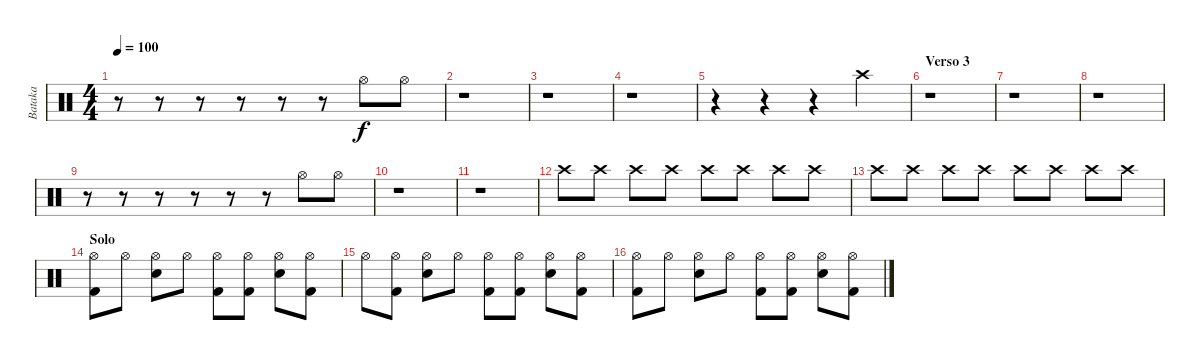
\track ("Bataka" "Bataka") {instrument percussion}
\staff {score}
\articulation defaults
\ts (4 4)
\tempo 100
\clef neutral
\ks c
r.8{dy f} r.8 r.8 r.8 r.8 r.8 "Hi-Hat (open)".8{volume 10} "Hi-Hat (open)".8 |
r.1 |
r.1 |
r.1 |
r.4{volume 8} r.4 r.4 "Crash high (hit)".4 |
\section ("" "Verso 3")
r.1 |
r.1 |
r.1 |
r.8 r.8 r.8 r.8 r.8 r.8 "Hi-Hat (open)".8{volume 10} "Hi-Hat (open)".8 |
r.1 |
r.1{volume 3} |
"Crash high (hit)".8{volume 14} "Crash high (hit)".8 "Crash high (hit)".8 "Crash high (hit)".8 "Crash high (hit)".8 "Crash high (hit)".8 "Crash high (hit)".8 "Crash high (hit)".8 |
"Crash high (hit)".8 "Crash high (hit)".8 "Crash high (hit)".8 "Crash high (hit)".8 "Crash high (hit)".8 "Crash high (hit)".8 "Crash high (hit)".8 "Crash high (hit)".8 |
\section ("" "Solo")
("Hi-Hat (open)" "Kick (hit) 2").8{volume 14} "Hi-Hat (open)".8 ("Hi-Hat (open)" "Snare (hit) 2").8 "Hi-Hat (open)".8 ("Hi-Hat (open)" "Kick (hit) 2").8 ("Hi-Hat (open)" "Kick (hit) 2").8 ("Hi-Hat (open)" "Snare (hit) 2").8 ("Hi-Hat (open)" "Kick (hit) 2").8 |
"Hi-Hat (open)".8 ("Hi-Hat (open)" "Kick (hit) 2").8 ("Hi-Hat (open)" "Snare (hit) 2").8 "Hi-Hat (open)".8 ("Hi-Hat (open)" "Kick (hit) 2").8 ("Hi-Hat (open)" "Kick (hit) 2").8 ("Hi-Hat (open)" "Snare (hit) 2").8 ("Hi-Hat (open)" "Kick (hit) 2").8 |
("Hi-Hat (open)" "Kick (hit) 2").8 "Hi-Hat (open)".8 ("Hi-Hat (open)" "Snare (hit) 2").8 "Hi-Hat (open)".8 ("Hi-Hat (open)" "Kick (hit) 2").8 ("Hi-Hat (open)" "Kick (hit) 2").8 ("Hi-Hat (open)" "Snare (hit) 2").8 ("Hi-Hat (open)" "Kick (hit) 2").8
